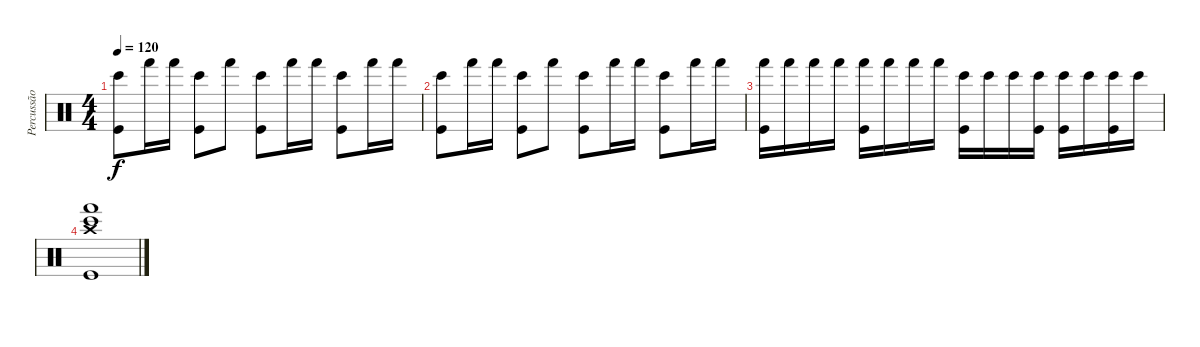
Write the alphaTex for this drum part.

\track ("Percussão" "Percussão") {instrument percussion}
\staff {score}
\articulation defaults
\ts (4 4)
\tempo 120
\clef neutral
\ks c
("Bongo High (hit)" "Kick (hit)").8{dy f} "Hand (hit)".16 "Hand (hit)".16 ("Bongo High (hit)" "Kick (hit)").8 "Hand (hit)".8 ("Bongo High (hit)" "Kick (hit)").8 "Hand (hit)".16 "Hand (hit)".16 ("Bongo High (hit)" "Kick (hit)").8 "Hand (hit)".16 "Hand (hit)".16 |
("Bongo High (hit)" "Kick (hit)").8 "Hand (hit)".16 "Hand (hit)".16 ("Bongo High (hit)" "Kick (hit)").8 "Hand (hit)".8 ("Bongo High (hit)" "Kick (hit)").8 "Hand (hit)".16 "Hand (hit)".16 ("Bongo High (hit)" "Kick (hit)").8 "Hand (hit)".16 "Hand (hit)".16 |
("Hand (hit)" "Kick (hit)").16 "Hand (hit)".16 "Hand (hit)".16 "Hand (hit)".16 ("Hand (hit)" "Kick (hit)").16 "Hand (hit)".16 "Hand (hit)".16 "Hand (hit)".16 ("Bongo High (hit)" "Kick (hit)").16 "Bongo High (hit)".16 "Bongo High (hit)".16 ("Bongo High (hit)" "Kick (hit)").16 ("Bongo High (hit)" "Kick (hit)").16 "Bongo High (hit)".16 ("Bongo High (hit)" "Kick (hit)").16 "Bongo High (hit)".16 |
("Crash high (hit)" "Hand (hit)" "Bongo High (hit)" "Kick (hit)").1
